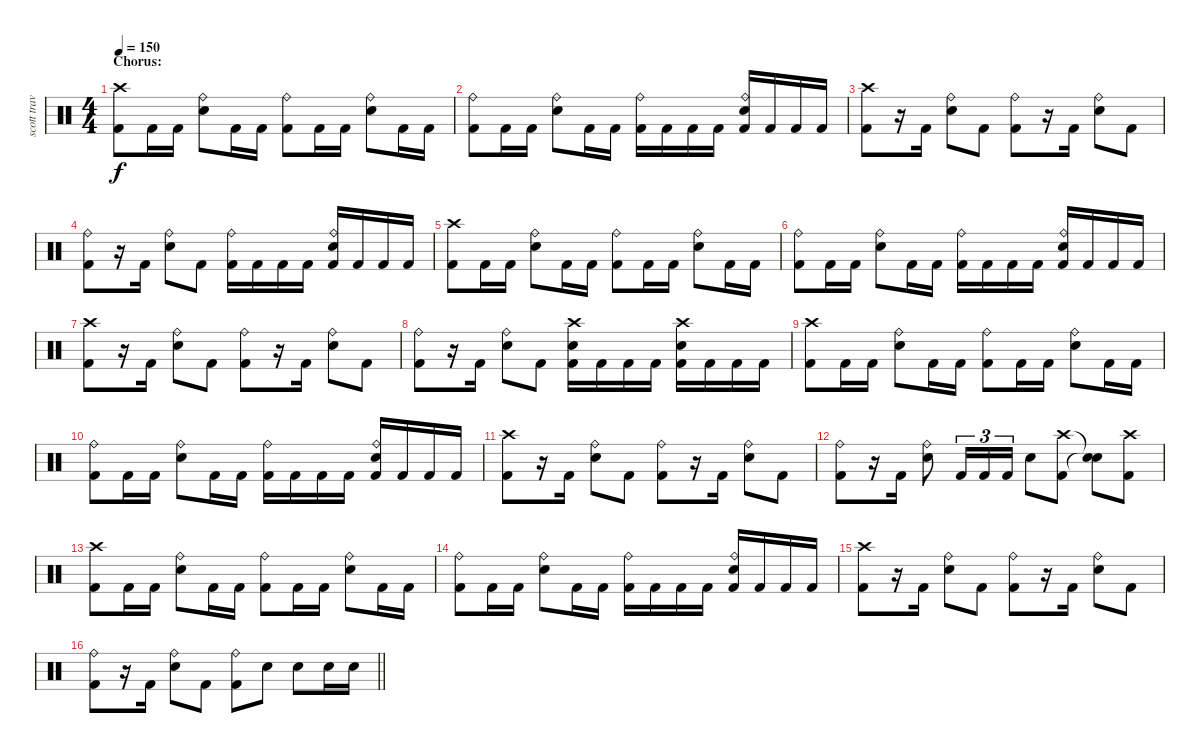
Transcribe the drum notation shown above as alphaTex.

\track ("scott travis" "scott trav") {instrument percussion}
\staff {score}
\articulation defaults
\ts (4 4)
\section ("" "Chorus:")
\tempo 150
\clef neutral
\ks c
("Crash high (hit)" "Kick (hit) 2").8{dy f} "Kick (hit) 2".16 "Kick (hit) 2".16 ("Ride (bell)" "Snare (hit) 2").8 "Kick (hit) 2".16 "Kick (hit) 2".16 ("Ride (bell)" "Kick (hit) 2").8 "Kick (hit) 2".16 "Kick (hit) 2".16 ("Ride (bell)" "Snare (hit) 2").8 "Kick (hit) 2".16 "Kick (hit) 2".16 |
("Ride (bell)" "Kick (hit) 2").8 "Kick (hit) 2".16 "Kick (hit) 2".16 ("Ride (bell)" "Snare (hit) 2").8 "Kick (hit) 2".16 "Kick (hit) 2".16 ("Ride (bell)" "Kick (hit) 2").16 "Kick (hit) 2".16 "Kick (hit) 2".16 "Kick (hit) 2".16 ("Ride (bell)" "Snare (hit) 2" "Kick (hit) 2").16 "Kick (hit) 2".16 "Kick (hit) 2".16 "Kick (hit) 2".16 |
("Crash high (hit)" "Kick (hit) 2").8 r.16 "Kick (hit) 2".16 ("Ride (bell)" "Snare (hit) 2").8 "Kick (hit) 2".8 ("Ride (bell)" "Kick (hit) 2").8 r.16 "Kick (hit) 2".16 ("Ride (bell)" "Snare (hit) 2").8 "Kick (hit) 2".8 |
("Ride (bell)" "Kick (hit) 2").8 r.16 "Kick (hit) 2".16 ("Ride (bell)" "Snare (hit) 2").8 "Kick (hit) 2".8 ("Ride (bell)" "Kick (hit) 2").16 "Kick (hit) 2".16 "Kick (hit) 2".16 "Kick (hit) 2".16 ("Ride (bell)" "Snare (hit) 2" "Kick (hit) 2").16 "Kick (hit) 2".16 "Kick (hit) 2".16 "Kick (hit) 2".16 |
("Crash high (hit)" "Kick (hit) 2").8 "Kick (hit) 2".16 "Kick (hit) 2".16 ("Ride (bell)" "Snare (hit) 2").8 "Kick (hit) 2".16 "Kick (hit) 2".16 ("Ride (bell)" "Kick (hit) 2").8 "Kick (hit) 2".16 "Kick (hit) 2".16 ("Ride (bell)" "Snare (hit) 2").8 "Kick (hit) 2".16 "Kick (hit) 2".16 |
("Ride (bell)" "Kick (hit) 2").8 "Kick (hit) 2".16 "Kick (hit) 2".16 ("Ride (bell)" "Snare (hit) 2").8 "Kick (hit) 2".16 "Kick (hit) 2".16 ("Ride (bell)" "Kick (hit) 2").16 "Kick (hit) 2".16 "Kick (hit) 2".16 "Kick (hit) 2".16 ("Ride (bell)" "Snare (hit) 2" "Kick (hit) 2").16 "Kick (hit) 2".16 "Kick (hit) 2".16 "Kick (hit) 2".16 |
("Crash high (hit)" "Kick (hit) 2").8 r.16 "Kick (hit) 2".16 ("Ride (bell)" "Snare (hit) 2").8 "Kick (hit) 2".8 ("Ride (bell)" "Kick (hit) 2").8 r.16 "Kick (hit) 2".16 ("Ride (bell)" "Snare (hit) 2").8 "Kick (hit) 2".8 |
("Ride (bell)" "Kick (hit) 2").8 r.16 "Kick (hit) 2".16 ("Ride (bell)" "Snare (hit) 2").8 "Kick (hit) 2".8 ("Crash high (hit)" "Snare (hit) 2" "Kick (hit) 2").16 "Kick (hit) 2".16 "Kick (hit) 2".16 "Kick (hit) 2".16 ("Crash high (hit)" "Snare (hit) 2" "Kick (hit) 2").16 "Kick (hit) 2".16 "Kick (hit) 2".16 "Kick (hit) 2".16 |
("Crash high (hit)" "Kick (hit) 2").8 "Kick (hit) 2".16 "Kick (hit) 2".16 ("Ride (bell)" "Snare (hit) 2").8 "Kick (hit) 2".16 "Kick (hit) 2".16 ("Ride (bell)" "Kick (hit) 2").8 "Kick (hit) 2".16 "Kick (hit) 2".16 ("Ride (bell)" "Snare (hit) 2").8 "Kick (hit) 2".16 "Kick (hit) 2".16 |
("Ride (bell)" "Kick (hit) 2").8 "Kick (hit) 2".16 "Kick (hit) 2".16 ("Ride (bell)" "Snare (hit) 2").8 "Kick (hit) 2".16 "Kick (hit) 2".16 ("Ride (bell)" "Kick (hit) 2").16 "Kick (hit) 2".16 "Kick (hit) 2".16 "Kick (hit) 2".16 ("Ride (bell)" "Snare (hit) 2" "Kick (hit) 2").16 "Kick (hit) 2".16 "Kick (hit) 2".16 "Kick (hit) 2".16 |
("Crash high (hit)" "Kick (hit) 2").8 r.16 "Kick (hit) 2".16 ("Ride (bell)" "Snare (hit) 2").8 "Kick (hit) 2".8 ("Ride (bell)" "Kick (hit) 2").8 r.16 "Kick (hit) 2".16 ("Ride (bell)" "Snare (hit) 2").8 "Kick (hit) 2".8 |
("Ride (bell)" "Kick (hit) 2").8 r.16 "Kick (hit) 2".16 ("Ride (bell)" "Snare (hit) 2").8 "Kick (hit) 2".16{tu (3 2)} "Kick (hit) 2".16{tu (3 2)} "Kick (hit) 2".16{tu (3 2)} "Snare (hit) 2".8 ("Crash high (hit)" "Kick (hit) 2").8 ("Snare (hit)"{t} "Snare (hit)"{t}).8 ("Crash high (hit)" "Kick (hit) 2").8 |
("Crash high (hit)" "Kick (hit) 2").8 "Kick (hit) 2".16 "Kick (hit) 2".16 ("Ride (bell)" "Snare (hit) 2").8 "Kick (hit) 2".16 "Kick (hit) 2".16 ("Ride (bell)" "Kick (hit) 2").8 "Kick (hit) 2".16 "Kick (hit) 2".16 ("Ride (bell)" "Snare (hit) 2").8 "Kick (hit) 2".16 "Kick (hit) 2".16 |
("Ride (bell)" "Kick (hit) 2").8 "Kick (hit) 2".16 "Kick (hit) 2".16 ("Ride (bell)" "Snare (hit) 2").8 "Kick (hit) 2".16 "Kick (hit) 2".16 ("Ride (bell)" "Kick (hit) 2").16 "Kick (hit) 2".16 "Kick (hit) 2".16 "Kick (hit) 2".16 ("Ride (bell)" "Snare (hit) 2" "Kick (hit) 2").16 "Kick (hit) 2".16 "Kick (hit) 2".16 "Kick (hit) 2".16 |
("Crash high (hit)" "Kick (hit) 2").8 r.16 "Kick (hit) 2".16 ("Ride (bell)" "Snare (hit) 2").8 "Kick (hit) 2".8 ("Ride (bell)" "Kick (hit) 2").8 r.16 "Kick (hit) 2".16 ("Ride (bell)" "Snare (hit) 2").8 "Kick (hit) 2".8 |
\barLineRight lightlight
("Ride (bell)" "Kick (hit) 2").8 r.16 "Kick (hit) 2".16 ("Ride (bell)" "Snare (hit) 2").8 "Kick (hit) 2".8 ("Ride (bell)" "Kick (hit) 2").8 "Snare (hit) 2".8 "Snare (hit) 2".8 "Snare (hit) 2".16 "Snare (hit) 2".16
